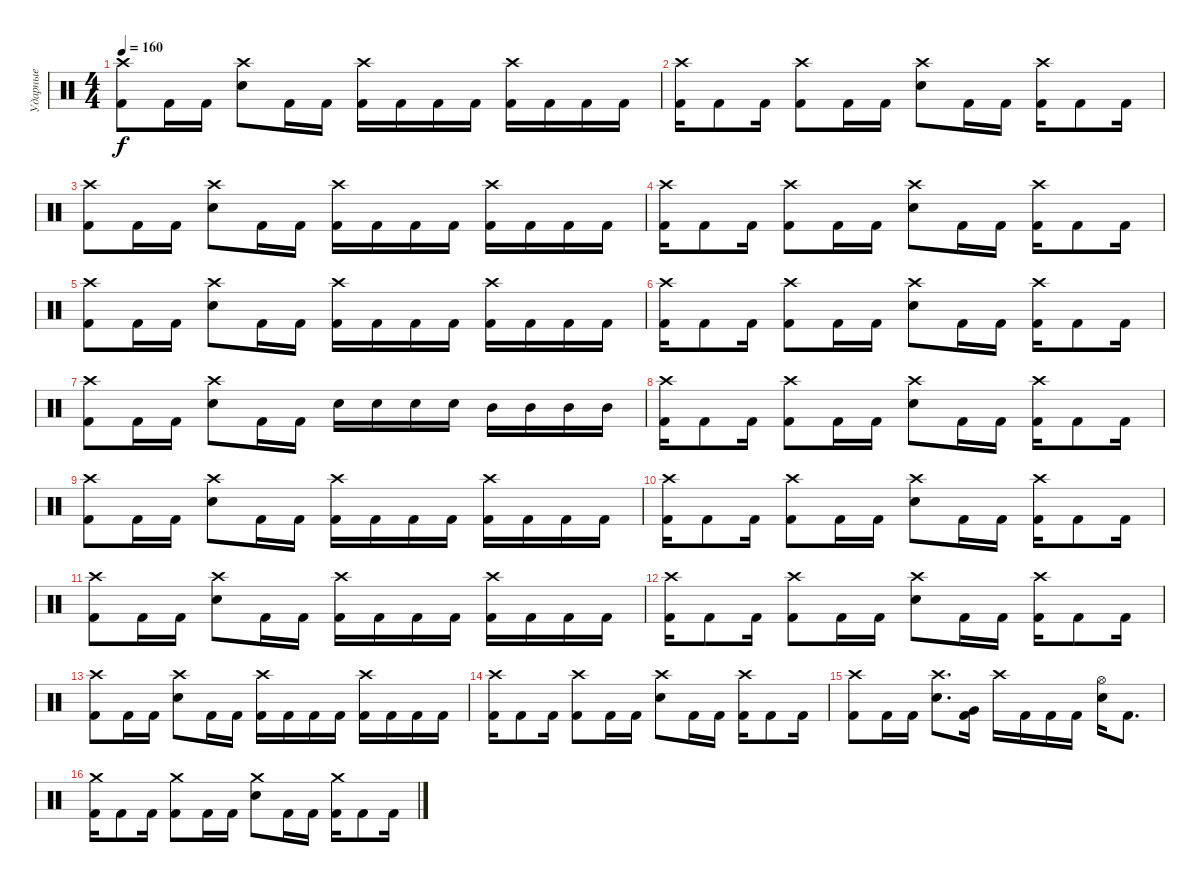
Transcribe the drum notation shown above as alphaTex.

\track ("Ударные" "Ударные") {instrument percussion}
\staff {score}
\articulation defaults
\ts (4 4)
\tempo 160
\clef neutral
\ks c
("Crash high (hit)" "Kick (hit) 2").8{dy f} "Kick (hit) 2".16 "Kick (hit) 2".16 ("Crash high (hit)" "Electric Snare (hit)").8 "Kick (hit) 2".16 "Kick (hit) 2".16 ("Crash high (hit)" "Kick (hit) 2").16 "Kick (hit) 2".16 "Kick (hit) 2".16 "Kick (hit) 2".16 ("Crash high (hit)" "Kick (hit) 2").16 "Kick (hit) 2".16 "Kick (hit) 2".16 "Kick (hit) 2".16 |
("Crash high (hit)" "Kick (hit) 2").16 "Kick (hit) 2".8 "Kick (hit) 2".16 ("Crash high (hit)" "Kick (hit) 2").8 "Kick (hit) 2".16 "Kick (hit) 2".16 ("Crash high (hit)" "Electric Snare (hit)").8 "Kick (hit) 2".16 "Kick (hit) 2".16 ("Crash high (hit)" "Kick (hit) 2").16 "Kick (hit) 2".8 "Kick (hit) 2".16 |
("Crash high (hit)" "Kick (hit) 2").8 "Kick (hit) 2".16 "Kick (hit) 2".16 ("Crash high (hit)" "Electric Snare (hit)").8 "Kick (hit) 2".16 "Kick (hit) 2".16 ("Crash high (hit)" "Kick (hit) 2").16 "Kick (hit) 2".16 "Kick (hit) 2".16 "Kick (hit) 2".16 ("Crash high (hit)" "Kick (hit) 2").16 "Kick (hit) 2".16 "Kick (hit) 2".16 "Kick (hit) 2".16 |
("Crash high (hit)" "Kick (hit) 2").16 "Kick (hit) 2".8 "Kick (hit) 2".16 ("Crash high (hit)" "Kick (hit) 2").8 "Kick (hit) 2".16 "Kick (hit) 2".16 ("Crash high (hit)" "Electric Snare (hit)").8 "Kick (hit) 2".16 "Kick (hit) 2".16 ("Crash high (hit)" "Kick (hit) 2").16 "Kick (hit) 2".8 "Kick (hit) 2".16 |
("Crash high (hit)" "Kick (hit) 2").8 "Kick (hit) 2".16 "Kick (hit) 2".16 ("Crash high (hit)" "Electric Snare (hit)").8 "Kick (hit) 2".16 "Kick (hit) 2".16 ("Crash high (hit)" "Kick (hit) 2").16 "Kick (hit) 2".16 "Kick (hit) 2".16 "Kick (hit) 2".16 ("Crash high (hit)" "Kick (hit) 2").16 "Kick (hit) 2".16 "Kick (hit) 2".16 "Kick (hit) 2".16 |
("Crash high (hit)" "Kick (hit) 2").16 "Kick (hit) 2".8 "Kick (hit) 2".16 ("Crash high (hit)" "Kick (hit) 2").8 "Kick (hit) 2".16 "Kick (hit) 2".16 ("Crash high (hit)" "Electric Snare (hit)").8 "Kick (hit) 2".16 "Kick (hit) 2".16 ("Crash high (hit)" "Kick (hit) 2").16 "Kick (hit) 2".8 "Kick (hit) 2".16 |
("Crash high (hit)" "Kick (hit) 2").8 "Kick (hit) 2".16 "Kick (hit) 2".16 ("Crash high (hit)" "Electric Snare (hit)").8 "Kick (hit) 2".16 "Kick (hit) 2".16 "Electric Snare (hit)".16 "Electric Snare (hit)".16 "Electric Snare (hit)".16 "Electric Snare (hit)".16 "Mid Tom (hit)".16 "Mid Tom (hit)".16 "Mid Tom (hit)".16 "Mid Tom (hit)".16 |
("Crash high (hit)" "Kick (hit) 2").16 "Kick (hit) 2".8 "Kick (hit) 2".16 ("Crash high (hit)" "Kick (hit) 2").8 "Kick (hit) 2".16 "Kick (hit) 2".16 ("Crash high (hit)" "Electric Snare (hit)").8 "Kick (hit) 2".16 "Kick (hit) 2".16 ("Crash high (hit)" "Kick (hit) 2").16 "Kick (hit) 2".8 "Kick (hit) 2".16 |
("Crash high (hit)" "Kick (hit) 2").8 "Kick (hit) 2".16 "Kick (hit) 2".16 ("Crash high (hit)" "Electric Snare (hit)").8 "Kick (hit) 2".16 "Kick (hit) 2".16 ("Crash high (hit)" "Kick (hit) 2").16 "Kick (hit) 2".16 "Kick (hit) 2".16 "Kick (hit) 2".16 ("Crash high (hit)" "Kick (hit) 2").16 "Kick (hit) 2".16 "Kick (hit) 2".16 "Kick (hit) 2".16 |
("Crash high (hit)" "Kick (hit) 2").16 "Kick (hit) 2".8 "Kick (hit) 2".16 ("Crash high (hit)" "Kick (hit) 2").8 "Kick (hit) 2".16 "Kick (hit) 2".16 ("Crash high (hit)" "Electric Snare (hit)").8 "Kick (hit) 2".16 "Kick (hit) 2".16 ("Crash high (hit)" "Kick (hit) 2").16 "Kick (hit) 2".8 "Kick (hit) 2".16 |
("Crash high (hit)" "Kick (hit) 2").8 "Kick (hit) 2".16 "Kick (hit) 2".16 ("Crash high (hit)" "Electric Snare (hit)").8 "Kick (hit) 2".16 "Kick (hit) 2".16 ("Crash high (hit)" "Kick (hit) 2").16 "Kick (hit) 2".16 "Kick (hit) 2".16 "Kick (hit) 2".16 ("Crash high (hit)" "Kick (hit) 2").16 "Kick (hit) 2".16 "Kick (hit) 2".16 "Kick (hit) 2".16 |
("Crash high (hit)" "Kick (hit) 2").16 "Kick (hit) 2".8 "Kick (hit) 2".16 ("Crash high (hit)" "Kick (hit) 2").8 "Kick (hit) 2".16 "Kick (hit) 2".16 ("Crash high (hit)" "Electric Snare (hit)").8 "Kick (hit) 2".16 "Kick (hit) 2".16 ("Crash high (hit)" "Kick (hit) 2").16 "Kick (hit) 2".8 "Kick (hit) 2".16 |
("Crash high (hit)" "Kick (hit) 2").8 "Kick (hit) 2".16 "Kick (hit) 2".16 ("Crash high (hit)" "Electric Snare (hit)").8 "Kick (hit) 2".16 "Kick (hit) 2".16 ("Crash high (hit)" "Kick (hit) 2").16 "Kick (hit) 2".16 "Kick (hit) 2".16 "Kick (hit) 2".16 ("Crash high (hit)" "Kick (hit) 2").16 "Kick (hit) 2".16 "Kick (hit) 2".16 "Kick (hit) 2".16 |
("Crash high (hit)" "Kick (hit) 2").16 "Kick (hit) 2".8 "Kick (hit) 2".16 ("Crash high (hit)" "Kick (hit) 2").8 "Kick (hit) 2".16 "Kick (hit) 2".16 ("Crash high (hit)" "Electric Snare (hit)").8 "Kick (hit) 2".16 "Kick (hit) 2".16 ("Crash high (hit)" "Kick (hit) 2").16 "Kick (hit) 2".8 "Kick (hit) 2".16 |
("Crash high (hit)" "Kick (hit) 2").8 "Kick (hit) 2".16 "Kick (hit) 2".16 ("Crash high (hit)" "Electric Snare (hit)").8{d} ("Very Low Tom (hit)" "Kick (hit) 2").16 "Crash high (hit)".16 "Kick (hit) 2".16 "Kick (hit) 2".16 "Kick (hit) 2".16 ("Hi-Hat (open)" "Electric Snare (hit)").16 "Kick (hit) 2".8{d} |
("Crash medium (hit)" "Kick (hit) 2").16 "Kick (hit) 2".8 "Kick (hit) 2".16 ("Crash medium (hit)" "Kick (hit) 2").8 "Kick (hit) 2".16 "Kick (hit) 2".16 ("Crash medium (hit)" "Electric Snare (hit)").8 "Kick (hit) 2".16 "Kick (hit) 2".16 ("Crash medium (hit)" "Kick (hit) 2").16 "Kick (hit) 2".8 "Kick (hit) 2".16
